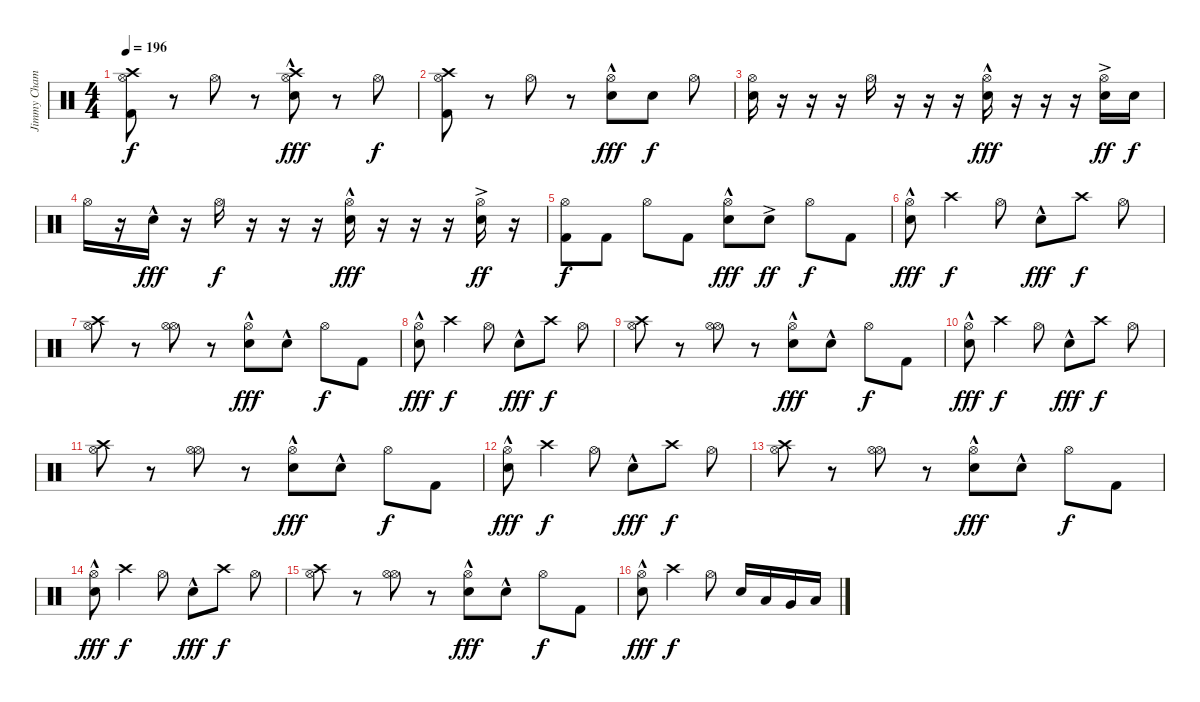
\track ("Jimmy Chamberlin" "Jimmy Cham") {instrument percussion}
\staff {score}
\articulation defaults
\ts (4 4)
\tempo 196
\clef neutral
\ks c
("Crash high (hit)" "Hi-Hat (open)" "Kick (hit) 2").8{dy f} r.8 "Hi-Hat (open)".8 r.8 ("Crash high (hit)" "Hi-Hat (open)" "Electric Snare (hit)"{hac}).8{dy fff} r.8 "Hi-Hat (open)".8{dy f} |
("Crash high (hit)" "Hi-Hat (open)" "Kick (hit) 2").8 r.8 "Hi-Hat (open)".8 r.8 ("Hi-Hat (open)" "Electric Snare (hit)"{hac}).8{dy fff} "Electric Snare (hit)".8{dy f} "Hi-Hat (open)".8 |
("Hi-Hat (open)" "Electric Snare (hit)").16 r.16 r.16 r.16 "Hi-Hat (open)".16 r.16 r.16 r.16 ("Hi-Hat (open)" "Electric Snare (hit)"{hac}).16{dy fff} r.16 r.16 r.16 ("Hi-Hat (open)" "Electric Snare (hit)"{ac}).16{dy ff} "Electric Snare (hit)".16{dy f} |
"Hi-Hat (open)".16 r.16 "Electric Snare (hit)"{hac}.16{dy fff} r.16 "Hi-Hat (open)".16{dy f} r.16 r.16 r.16 ("Hi-Hat (open)" "Electric Snare (hit)"{hac}).16{dy fff} r.16 r.16 r.16 ("Hi-Hat (open)" "Electric Snare (hit)"{ac}).16{dy ff} r.16 |
("Hi-Hat (open)" "Kick (hit) 2").8{dy f} "Kick (hit) 2".8 "Hi-Hat (open)".8 "Kick (hit) 2".8 ("Hi-Hat (open)" "Electric Snare (hit)"{hac}).8{dy fff} "Electric Snare (hit)"{ac}.8{dy ff} "Hi-Hat (open)".8{dy f} "Kick (hit) 2".8 |
("Hi-Hat (open)" "Electric Snare (hit)"{hac}).8{dy fff} "Crash high (hit)".4{dy f} "Hi-Hat (open)".8 "Electric Snare (hit)"{hac}.8{dy fff} "Crash high (hit)".8{dy f} "Hi-Hat (open)".8 |
("Crash high (hit)" "Hi-Hat (open)").8 r.8 ("Hi-Hat (open)" "Hi-Hat (open)").8 r.8 ("Hi-Hat (open)" "Electric Snare (hit)"{hac}).8{dy fff} "Electric Snare (hit)"{hac}.8 "Hi-Hat (open)".8{dy f} "Kick (hit) 2".8 |
("Hi-Hat (open)" "Electric Snare (hit)"{hac}).8{dy fff} "Crash high (hit)".4{dy f} "Hi-Hat (open)".8 "Electric Snare (hit)"{hac}.8{dy fff} "Crash high (hit)".8{dy f} "Hi-Hat (open)".8 |
("Crash high (hit)" "Hi-Hat (open)").8 r.8 ("Hi-Hat (open)" "Hi-Hat (open)").8 r.8 ("Hi-Hat (open)" "Electric Snare (hit)"{hac}).8{dy fff} "Electric Snare (hit)"{hac}.8 "Hi-Hat (open)".8{dy f} "Kick (hit) 2".8 |
("Hi-Hat (open)" "Electric Snare (hit)"{hac}).8{dy fff} "Crash high (hit)".4{dy f} "Hi-Hat (open)".8 "Electric Snare (hit)"{hac}.8{dy fff} "Crash high (hit)".8{dy f} "Hi-Hat (open)".8 |
("Crash high (hit)" "Hi-Hat (open)").8 r.8 ("Hi-Hat (open)" "Hi-Hat (open)").8 r.8 ("Hi-Hat (open)" "Electric Snare (hit)"{hac}).8{dy fff} "Electric Snare (hit)"{hac}.8 "Hi-Hat (open)".8{dy f} "Kick (hit) 2".8 |
("Hi-Hat (open)" "Electric Snare (hit)"{hac}).8{dy fff} "Crash high (hit)".4{dy f} "Hi-Hat (open)".8 "Electric Snare (hit)"{hac}.8{dy fff} "Crash high (hit)".8{dy f} "Hi-Hat (open)".8 |
("Crash high (hit)" "Hi-Hat (open)").8 r.8 ("Hi-Hat (open)" "Hi-Hat (open)").8 r.8 ("Hi-Hat (open)" "Electric Snare (hit)"{hac}).8{dy fff} "Electric Snare (hit)"{hac}.8 "Hi-Hat (open)".8{dy f} "Kick (hit) 2".8 |
("Hi-Hat (open)" "Electric Snare (hit)"{hac}).8{dy fff} "Crash high (hit)".4{dy f} "Hi-Hat (open)".8 "Electric Snare (hit)"{hac}.8{dy fff} "Crash high (hit)".8{dy f} "Hi-Hat (open)".8 |
("Crash high (hit)" "Hi-Hat (open)").8 r.8 ("Hi-Hat (open)" "Hi-Hat (open)").8 r.8 ("Hi-Hat (open)" "Electric Snare (hit)"{hac}).8{dy fff} "Electric Snare (hit)"{hac}.8 "Hi-Hat (open)".8{dy f} "Kick (hit) 2".8 |
("Hi-Hat (open)" "Electric Snare (hit)"{hac}).8{dy fff} "Crash high (hit)".4{dy f} "Hi-Hat (open)".8 "Electric Snare (hit)".16 "Low Tom (hit)".16 "Very Low Tom (hit)".16 "Low Floor Tom (hit)".16
